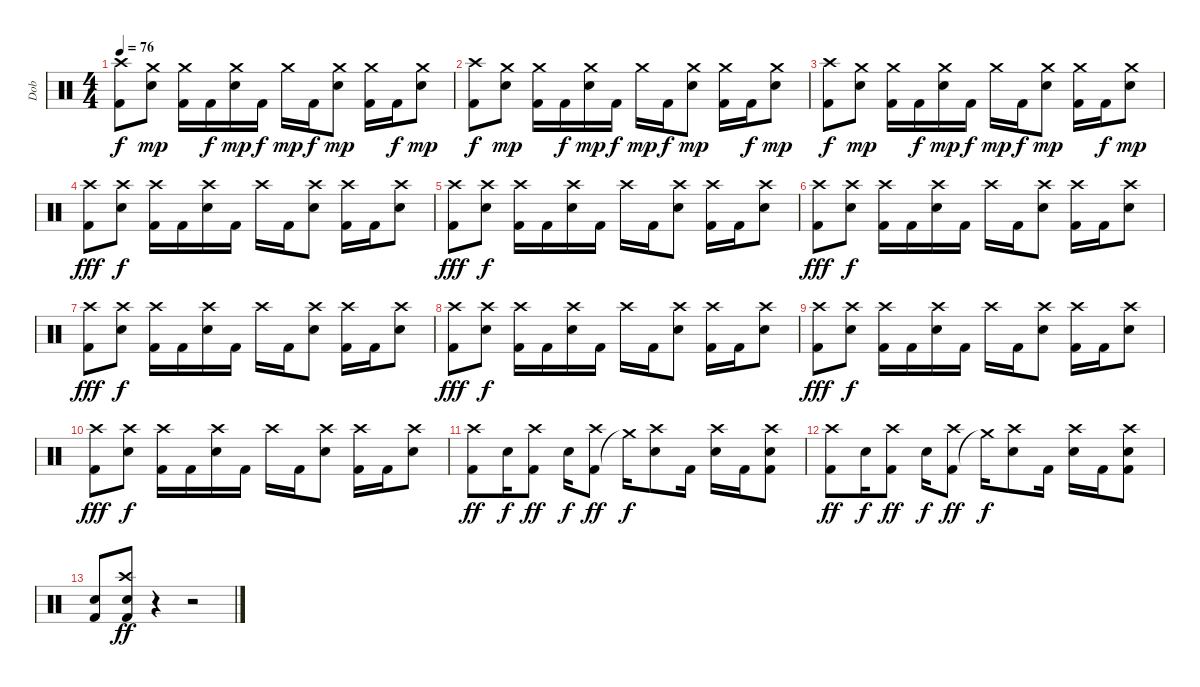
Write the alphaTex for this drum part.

\track ("Dob" "Dob") {instrument percussion}
\staff {score}
\articulation defaults
\ts (4 4)
\tempo 76
\clef neutral
\ks c
("Kick (hit) 2" "Crash high (hit)").8{dy f} ("Electric Snare (hit)" "Crash medium (hit)").8{dy mp} ("Kick (hit) 2" "Crash medium (hit)").16 "Kick (hit) 2".16{dy f} ("Electric Snare (hit)" "Crash medium (hit)").16{dy mp} "Kick (hit) 2".16{dy f} "Crash medium (hit)".16{dy mp} "Kick (hit) 2".16{dy f} ("Electric Snare (hit)" "Crash medium (hit)").8{dy mp} ("Kick (hit) 2" "Crash medium (hit)").16 "Kick (hit) 2".16{dy f} ("Electric Snare (hit)" "Crash medium (hit)").8{dy mp} |
("Kick (hit) 2" "Crash high (hit)").8{dy f} ("Electric Snare (hit)" "Crash medium (hit)").8{dy mp} ("Kick (hit) 2" "Crash medium (hit)").16 "Kick (hit) 2".16{dy f} ("Electric Snare (hit)" "Crash medium (hit)").16{dy mp} "Kick (hit) 2".16{dy f} "Crash medium (hit)".16{dy mp} "Kick (hit) 2".16{dy f} ("Electric Snare (hit)" "Crash medium (hit)").8{dy mp} ("Kick (hit) 2" "Crash medium (hit)").16 "Kick (hit) 2".16{dy f} ("Electric Snare (hit)" "Crash medium (hit)").8{dy mp} |
("Kick (hit) 2" "Crash high (hit)").8{dy f} ("Electric Snare (hit)" "Crash medium (hit)").8{dy mp} ("Kick (hit) 2" "Crash medium (hit)").16 "Kick (hit) 2".16{dy f} ("Electric Snare (hit)" "Crash medium (hit)").16{dy mp} "Kick (hit) 2".16{dy f} "Crash medium (hit)".16{dy mp} "Kick (hit) 2".16{dy f} ("Electric Snare (hit)" "Crash medium (hit)").8{dy mp} ("Kick (hit) 2" "Crash medium (hit)").16 "Kick (hit) 2".16{dy f} ("Electric Snare (hit)" "Crash medium (hit)").8{dy mp} |
("Kick (hit) 2" "Crash high (hit)").8{dy fff} ("Electric Snare (hit)" "Crash high (hit)").8{dy f} ("Kick (hit) 2" "Crash high (hit)").16 "Kick (hit) 2".16 ("Electric Snare (hit)" "Crash high (hit)").16 "Kick (hit) 2".16 "Crash high (hit)".16 "Kick (hit) 2".16 ("Electric Snare (hit)" "Crash high (hit)").8 ("Kick (hit) 2" "Crash high (hit)").16 "Kick (hit) 2".16 ("Electric Snare (hit)" "Crash high (hit)").8 |
("Kick (hit) 2" "Crash high (hit)").8{dy fff} ("Electric Snare (hit)" "Crash high (hit)").8{dy f} ("Kick (hit) 2" "Crash high (hit)").16 "Kick (hit) 2".16 ("Electric Snare (hit)" "Crash high (hit)").16 "Kick (hit) 2".16 "Crash high (hit)".16 "Kick (hit) 2".16 ("Electric Snare (hit)" "Crash high (hit)").8 ("Kick (hit) 2" "Crash high (hit)").16 "Kick (hit) 2".16 ("Electric Snare (hit)" "Crash high (hit)").8 |
("Kick (hit) 2" "Crash high (hit)").8{dy fff} ("Electric Snare (hit)" "Crash high (hit)").8{dy f} ("Kick (hit) 2" "Crash high (hit)").16 "Kick (hit) 2".16 ("Electric Snare (hit)" "Crash high (hit)").16 "Kick (hit) 2".16 "Crash high (hit)".16 "Kick (hit) 2".16 ("Electric Snare (hit)" "Crash high (hit)").8 ("Kick (hit) 2" "Crash high (hit)").16 "Kick (hit) 2".16 ("Electric Snare (hit)" "Crash high (hit)").8 |
("Kick (hit) 2" "Crash high (hit)").8{dy fff} ("Electric Snare (hit)" "Crash high (hit)").8{dy f} ("Kick (hit) 2" "Crash high (hit)").16 "Kick (hit) 2".16 ("Electric Snare (hit)" "Crash high (hit)").16 "Kick (hit) 2".16 "Crash high (hit)".16 "Kick (hit) 2".16 ("Electric Snare (hit)" "Crash high (hit)").8 ("Kick (hit) 2" "Crash high (hit)").16 "Kick (hit) 2".16 ("Electric Snare (hit)" "Crash high (hit)").8 |
("Kick (hit) 2" "Crash high (hit)").8{dy fff} ("Electric Snare (hit)" "Crash high (hit)").8{dy f} ("Kick (hit) 2" "Crash high (hit)").16 "Kick (hit) 2".16 ("Electric Snare (hit)" "Crash high (hit)").16 "Kick (hit) 2".16 "Crash high (hit)".16 "Kick (hit) 2".16 ("Electric Snare (hit)" "Crash high (hit)").8 ("Kick (hit) 2" "Crash high (hit)").16 "Kick (hit) 2".16 ("Electric Snare (hit)" "Crash high (hit)").8 |
("Kick (hit) 2" "Crash high (hit)").8{dy fff} ("Electric Snare (hit)" "Crash high (hit)").8{dy f} ("Kick (hit) 2" "Crash high (hit)").16 "Kick (hit) 2".16 ("Electric Snare (hit)" "Crash high (hit)").16 "Kick (hit) 2".16 "Crash high (hit)".16 "Kick (hit) 2".16 ("Electric Snare (hit)" "Crash high (hit)").8 ("Kick (hit) 2" "Crash high (hit)").16 "Kick (hit) 2".16 ("Electric Snare (hit)" "Crash high (hit)").8 |
("Kick (hit) 2" "Crash high (hit)").8{dy fff} ("Electric Snare (hit)" "Crash high (hit)").8{dy f} ("Kick (hit) 2" "Crash high (hit)").16 "Kick (hit) 2".16 ("Electric Snare (hit)" "Crash high (hit)").16 "Kick (hit) 2".16 "Crash high (hit)".16 "Kick (hit) 2".16 ("Electric Snare (hit)" "Crash high (hit)").8 ("Kick (hit) 2" "Crash high (hit)").16 "Kick (hit) 2".16 ("Electric Snare (hit)" "Crash high (hit)").8 |
("Kick (hit) 2" "Crash high (hit)").8{dy ff} "Electric Snare (hit)".16{dy f} ("Kick (hit) 2" "Crash high (hit)").8{dy ff} "Electric Snare (hit)".16{dy f} ("Kick (hit) 2" "Crash high (hit)").8{dy ff} "Crash medium (hit)"{t}.16{dy f} ("Electric Snare (hit)" "Crash high (hit)").8 "Kick (hit) 2".16 ("Electric Snare (hit)" "Crash high (hit)").16 "Kick (hit) 2".16 ("Electric Snare (hit)" "Kick (hit) 2" "Crash high (hit)").8 |
("Kick (hit) 2" "Crash high (hit)").8{dy ff} "Electric Snare (hit)".16{dy f} ("Kick (hit) 2" "Crash high (hit)").8{dy ff} "Electric Snare (hit)".16{dy f} ("Kick (hit) 2" "Crash high (hit)").8{dy ff} "Crash medium (hit)"{t}.16{dy f} ("Electric Snare (hit)" "Crash high (hit)").8 "Kick (hit) 2".16 ("Electric Snare (hit)" "Crash high (hit)").16 "Kick (hit) 2".16 ("Electric Snare (hit)" "Kick (hit) 2" "Crash high (hit)").8 |
("Electric Snare (hit)" "Kick (hit) 2").8 ("Electric Snare (hit)" "Kick (hit) 2" "Crash high (hit)").8{dy ff} r.4 r.2
